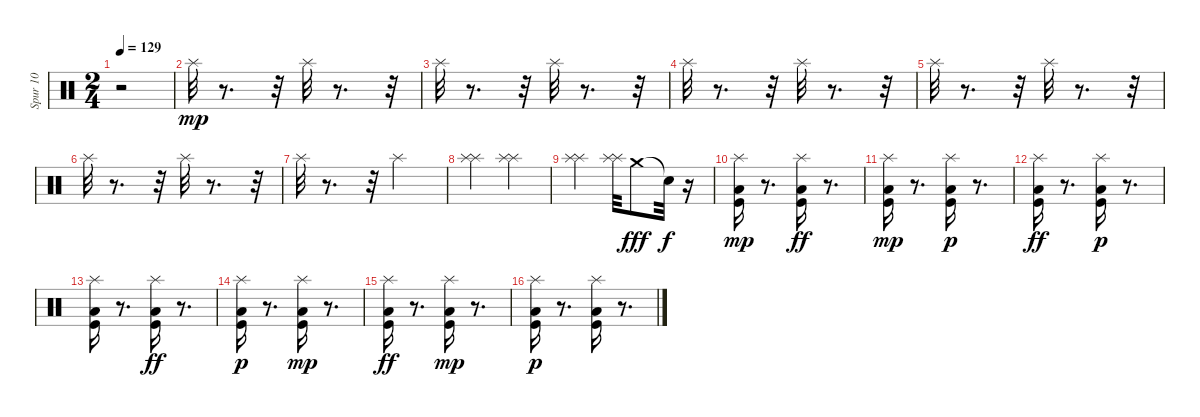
\track ("Spur 10" "Spur 10") {instrument percussion}
\staff {score}
\articulation defaults
\ts (2 4)
\tempo 129
\clef neutral
\ks c
r.2{dy mp} |
"Splash (hit)".32 r.8{d} r.32 "Splash (hit)".32 r.8{d} r.32 |
"Splash (hit)".32 r.8{d} r.32 "Splash (hit)".32 r.8{d} r.32 |
"Splash (hit)".32 r.8{d} r.32 "Splash (hit)".32 r.8{d} r.32 |
"Splash (hit)".32 r.8{d} r.32 "Splash (hit)".32 r.8{d} r.32 |
"Splash (hit)".32 r.8{d} r.32 "Splash (hit)".32 r.8{d} r.32 |
"Splash (hit)".32 r.8{d} r.32 "Splash (hit)".4 |
("Splash (hit)" "Splash (hit)").4 ("Splash (hit)" "Splash (hit)").4 |
("Splash (hit)" "Splash (hit)").4 ("Splash (hit)" "Splash (hit)").32 "Crash medium (hit)".8{dy fff} "Snare (hit)"{t}.32{dy f} r.16 |
("Low Tom (hit)" "Kick (hit)" "Splash (hit)").16{dy mp} r.8{d} ("Low Tom (hit)" "Splash (hit)" "Kick (hit)").16{dy ff} r.8{d} |
("Low Tom (hit)" "Kick (hit)" "Splash (hit)").16{dy mp} r.8{d} ("Kick (hit)" "Splash (hit)" "Low Tom (hit)").16{dy p} r.8{d} |
("Low Tom (hit)" "Splash (hit)" "Kick (hit)").16{dy ff} r.8{d} ("Kick (hit)" "Splash (hit)" "Low Tom (hit)").16{dy p} r.8{d} |
("Splash (hit)" "Kick (hit)" "Low Tom (hit)").16 r.8{d} ("Splash (hit)" "Low Tom (hit)" "Kick (hit)").16{dy ff} r.8{d} |
("Splash (hit)" "Kick (hit)" "Low Tom (hit)").16{dy p} r.8{d} ("Low Tom (hit)" "Kick (hit)" "Splash (hit)").16{dy mp} r.8{d} |
("Low Tom (hit)" "Splash (hit)" "Kick (hit)").16{dy ff} r.8{d} ("Low Tom (hit)" "Kick (hit)" "Splash (hit)").16{dy mp} r.8{d} |
("Splash (hit)" "Kick (hit)" "Low Tom (hit)").16{dy p} r.8{d} ("Splash (hit)" "Kick (hit)" "Low Tom (hit)").16 r.8{d}
